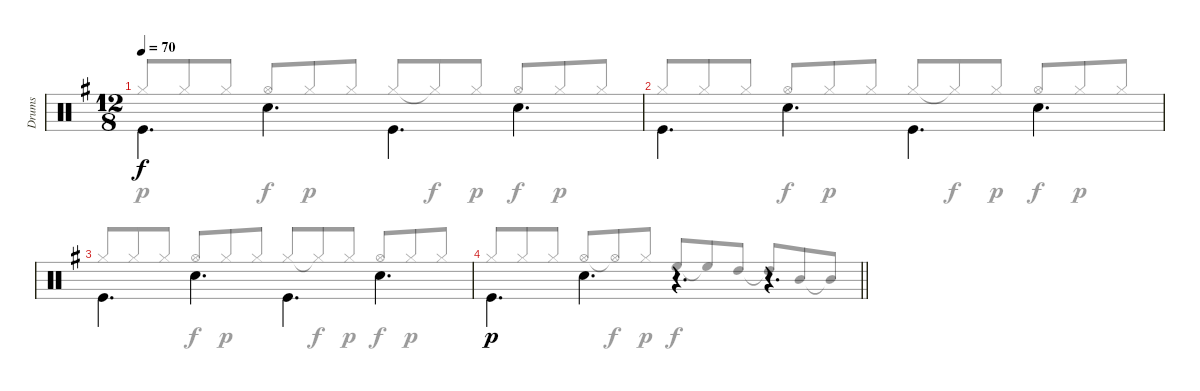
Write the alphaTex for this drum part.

\track ("Drums" "Drums") {instrument percussion}
\staff {score}
\articulation defaults
\voice
\ts (12 8)
\tempo 70
\clef neutral
\ks eminor "Kick (hit)".4{d dy f beam Down} "Snare (hit) 2".4{d beam Down} "Kick (hit)".4{d beam Down} "Snare (hit) 2".4{d beam Down}
|
"Kick (hit)".4{d beam Down} "Snare (hit) 2".4{d beam Down} "Kick (hit)".4{d beam Down} "Snare (hit) 2".4{d beam Down} |
"Kick (hit)".4{d beam Down} "Snare (hit) 2".4{d beam Down} "Kick (hit)".4{d beam Down} "Snare (hit) 2".4{d beam Down} |
\barLineRight lightlight "Kick (hit)".4{d dy p beam Down} "Snare (hit) 2".4{d beam Down}
r.4{d} r.4{d}
\voice
\clef neutral
\ottava regular
\simile none
\ks eminor "Hi-Hat (closed)".8{dy p beam Up} "Hi-Hat (closed)".8{beam Up} "Hi-Hat (closed)".8{beam Up} "Hi-Hat (open)".8{dy f beam Up} "Hi-Hat (closed)".8{dy p beam Up} "Hi-Hat (closed)".8{beam Up} "Hi-Hat (closed)".8{beam Up} "Hi-Hat (closed)"{t}.8{dy f beam Up} "Hi-Hat (closed)".8{dy p beam Up} "Hi-Hat (open)".8{dy f beam Up} "Hi-Hat (closed)".8{dy p beam Up} "Hi-Hat (closed)".8{beam Up}
|
"Hi-Hat (closed)".8{beam Up} "Hi-Hat (closed)".8{beam Up} "Hi-Hat (closed)".8{beam Up} "Hi-Hat (open)".8{dy f beam Up} "Hi-Hat (closed)".8{dy p beam Up} "Hi-Hat (closed)".8{beam Up} "Hi-Hat (closed)".8{beam Up} "Hi-Hat (closed)"{t}.8{dy f beam Up} "Hi-Hat (closed)".8{dy p beam Up} "Hi-Hat (open)".8{dy f beam Up} "Hi-Hat (closed)".8{dy p beam Up} "Hi-Hat (closed)".8{beam Up} |
"Hi-Hat (closed)".8{beam Up} "Hi-Hat (closed)".8{beam Up} "Hi-Hat (closed)".8{beam Up} "Hi-Hat (open)".8{dy f beam Up} "Hi-Hat (closed)".8{dy p beam Up} "Hi-Hat (closed)".8{beam Up} "Hi-Hat (closed)".8{beam Up} "Hi-Hat (closed)"{t}.8{dy f beam Up} "Hi-Hat (closed)".8{dy p beam Up} "Hi-Hat (open)".8{dy f beam Up} "Hi-Hat (closed)".8{dy p beam Up} "Hi-Hat (closed)".8{beam Up} |
\barLineRight lightlight "Hi-Hat (closed)".8{beam Up} "Hi-Hat (closed)".8{beam Up} "Hi-Hat (closed)".8{beam Up} "Hi-Hat (open)".8{beam Up} "Hi-Hat (open)"{t}.8{dy f beam Up} "Hi-Hat (closed)".8{dy p beam Up} "High Floor Tom (hit)".8{dy f beam Up} "High Floor Tom (hit)"{t}.8{beam Up} "High Tom (hit)".8{beam Up} "High Tom (hit)"{t}.8{beam Up} "Mid Tom (hit)".8{beam Up} "Mid Tom (hit)"{t}.8{beam Up}
